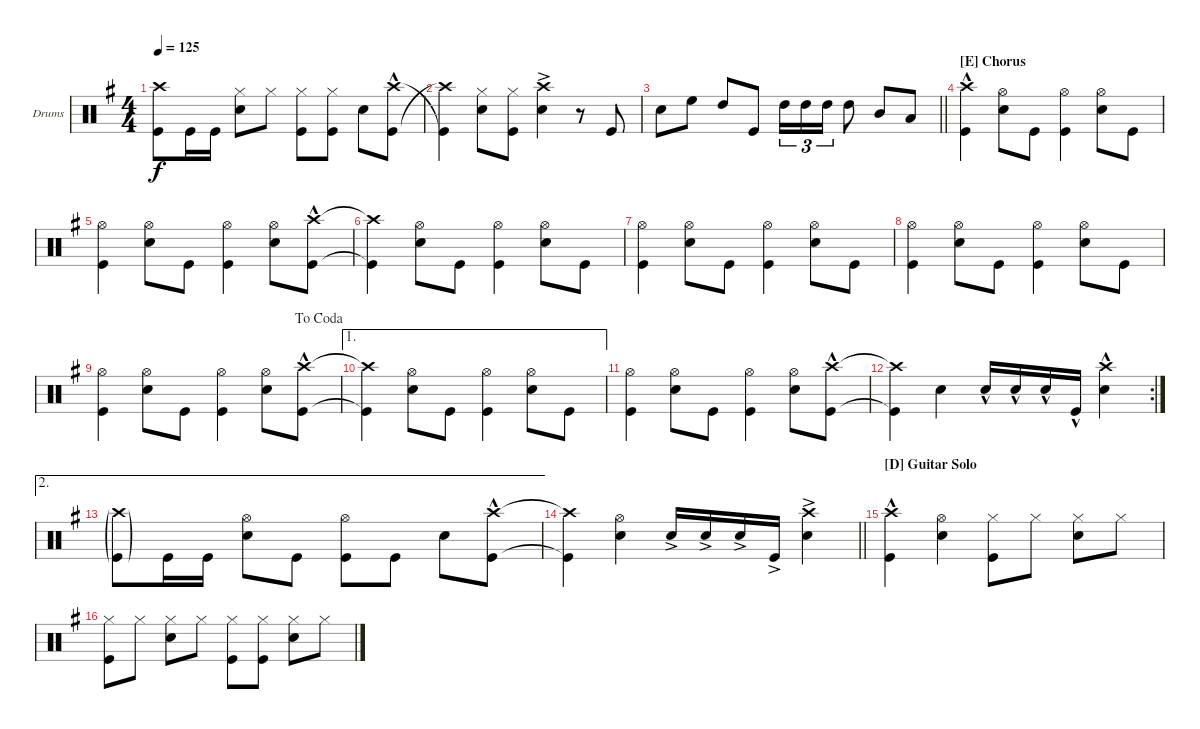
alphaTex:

\defaultSystemsLayout 4
\bracketExtendMode groupsimilarinstruments
\firstSystemTrackNameOrientation horizontal
\otherSystemsTrackNameOrientation horizontal
\track ("Mark Cavarzan Drums" "Drums") {instrument percussion}
\staff {score}
\articulation defaults
\ts (4 4)
\tempo 125
\clef neutral
\ks g
("Crash high (hit)"{t} "Kick (hit)"{t}).8{dy f} "Kick (hit)".16 "Kick (hit)".16 ("Snare (hit) 2" "Hi-Hat (closed)").8 "Hi-Hat (closed)".8 ("Hi-Hat (closed)" "Kick (hit)").8 ("Hi-Hat (closed)" "Kick (hit)").8 "Snare (hit) 2".8 ("Crash high (hit)"{hac} "Kick (hit)"{hac}).8 |
("Kick (hit)"{t} "Crash high (hit)"{t}).4 ("Hi-Hat (closed)" "Snare (hit) 2").8 ("Hi-Hat (closed)" "Kick (hit)").8 ("Snare (hit) 2"{ac} "Crash high (hit)"{ac}).4 r.8 "Kick (hit)".8 |
\barLineRight lightlight "Snare (hit) 2".8 "High Floor Tom (hit)".8 "High Tom (hit)".8 "Kick (hit)".8 "High Tom (hit)".16{tu (3 2)} "High Tom (hit)".16{tu (3 2)} "High Tom (hit)".16{tu (3 2)} "High Tom (hit)".8 "Mid Tom (hit)".8 "Low Tom (hit)".8
|
\section ("E" "Chorus")
("Kick (hit)"{hac} "Crash high (hit)"{hac}).4 ("Hi-Hat (open)" "Snare (hit) 2").8 "Kick (hit)".8 ("Kick (hit)" "Hi-Hat (open)").4 ("Hi-Hat (open)" "Snare (hit) 2").8 "Kick (hit)".8 |
("Kick (hit)" "Hi-Hat (open)").4 ("Hi-Hat (open)" "Snare (hit) 2").8 "Kick (hit)".8 ("Kick (hit)" "Hi-Hat (open)").4 ("Hi-Hat (open)" "Snare (hit) 2").8 ("Kick (hit)"{hac} "Crash high (hit)"{hac}).8 |
("Kick (hit)"{t} "Crash high (hit)"{t}).4 ("Hi-Hat (open)" "Snare (hit) 2").8 "Kick (hit)".8 ("Kick (hit)" "Hi-Hat (open)").4 ("Hi-Hat (open)" "Snare (hit) 2").8 "Kick (hit)".8 |
("Kick (hit)" "Hi-Hat (open)").4 ("Hi-Hat (open)" "Snare (hit) 2").8 "Kick (hit)".8 ("Kick (hit)" "Hi-Hat (open)").4 ("Hi-Hat (open)" "Snare (hit) 2").8 "Kick (hit)".8 |
("Kick (hit)" "Hi-Hat (open)").4 ("Hi-Hat (open)" "Snare (hit) 2").8 "Kick (hit)".8 ("Kick (hit)" "Hi-Hat (open)").4 ("Hi-Hat (open)" "Snare (hit) 2").8 "Kick (hit)".8 |
\jump dacoda
("Kick (hit)" "Hi-Hat (open)").4 ("Hi-Hat (open)" "Snare (hit) 2").8 "Kick (hit)".8 ("Kick (hit)" "Hi-Hat (open)").4 ("Hi-Hat (open)" "Snare (hit) 2").8 ("Kick (hit)"{hac} "Crash high (hit)"{hac}).8 |
\ae 1
("Kick (hit)"{t} "Crash high (hit)"{t}).4 ("Hi-Hat (open)" "Snare (hit) 2").8 "Kick (hit)".8 ("Kick (hit)" "Hi-Hat (open)").4 ("Hi-Hat (open)" "Snare (hit) 2").8 "Kick (hit)".8 |
("Kick (hit)" "Hi-Hat (open)").4 ("Hi-Hat (open)" "Snare (hit) 2").8 "Kick (hit)".8 ("Kick (hit)" "Hi-Hat (open)").4 ("Hi-Hat (open)" "Snare (hit) 2").8 ("Kick (hit)"{hac} "Crash high (hit)"{hac}).8 |
\rc 2
("Kick (hit)"{t} "Crash high (hit)"{t}).4 "Snare (hit) 2".4 "Snare (hit) 2"{hac}.16 "Snare (hit) 2"{hac}.16 "Snare (hit) 2"{hac}.16 "Kick (hit)"{hac}.16 ("Snare (hit) 2"{hac} "Crash high (hit)"{hac}).4 |
\ae 2
("Crash high (hit)"{g} "Kick (hit)"{g}).8 "Kick (hit)".16 "Kick (hit)".16 ("Snare (hit) 2" "Hi-Hat (open)").8 "Kick (hit)".8 ("Kick (hit)" "Hi-Hat (open)").8 "Kick (hit)".8 "Snare (hit) 2".8 ("Kick (hit)"{hac} "Crash high (hit)"{hac}).8 |
\barLineRight lightlight
("Kick (hit)"{t} "Crash high (hit)"{t}).4 ("Snare (hit) 2" "Hi-Hat (open)").4 "Snare (hit) 2"{ac}.16 "Snare (hit) 2"{ac}.16 "Snare (hit) 2"{ac}.16 "Kick (hit)"{ac}.16 ("Snare (hit) 2"{ac} "Crash high (hit)"{ac}).4 |
\section ("D" "Guitar Solo")
("Kick (hit)"{hac} "Crash high (hit)"{hac}).4 ("Hi-Hat (open)" "Snare (hit) 2").4 ("Kick (hit)" "Hi-Hat (closed)").8 "Hi-Hat (closed)".8 ("Hi-Hat (closed)" "Snare (hit) 2").8 "Hi-Hat (closed)".8 |
("Hi-Hat (closed)" "Kick (hit)").8 "Hi-Hat (closed)".8 ("Hi-Hat (closed)" "Snare (hit) 2").8 "Hi-Hat (closed)".8 ("Hi-Hat (closed)" "Kick (hit)").8 ("Hi-Hat (closed)" "Kick (hit)").8 ("Hi-Hat (closed)" "Snare (hit) 2").8 "Hi-Hat (closed)".8
